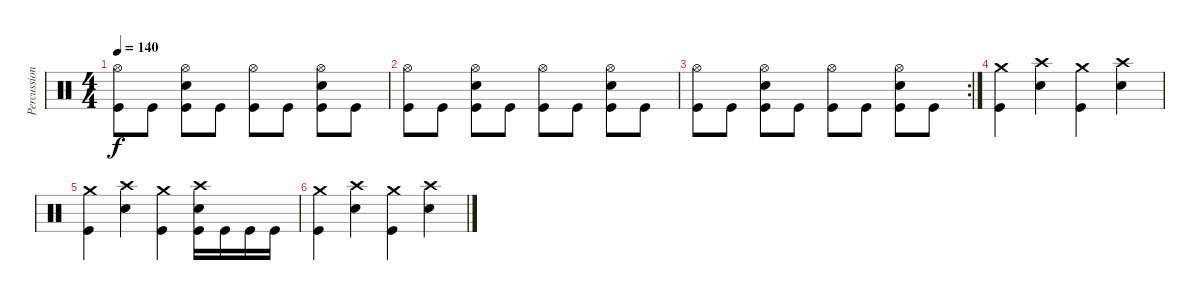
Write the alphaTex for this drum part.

\track ("Percussion" "Percussion") {instrument percussion}
\staff {score}
\articulation defaults
\ts (4 4)
\tempo 140
\clef neutral
\ks c
("Hi-Hat (open)" "Kick (hit)").8{dy f} "Kick (hit)".8 ("Hi-Hat (open)" "Snare (hit) 2" "Kick (hit)").8 "Kick (hit)".8 ("Hi-Hat (open)" "Kick (hit)").8 "Kick (hit)".8 ("Hi-Hat (open)" "Snare (hit) 2" "Kick (hit)").8 "Kick (hit)".8 |
("Hi-Hat (open)" "Kick (hit)").8 "Kick (hit)".8 ("Hi-Hat (open)" "Snare (hit) 2" "Kick (hit)").8 "Kick (hit)".8 ("Hi-Hat (open)" "Kick (hit)").8 "Kick (hit)".8 ("Hi-Hat (open)" "Snare (hit) 2" "Kick (hit)").8 "Kick (hit)".8 |
\rc 2
("Hi-Hat (open)" "Kick (hit)").8 "Kick (hit)".8 ("Hi-Hat (open)" "Snare (hit) 2" "Kick (hit)").8 "Kick (hit)".8 ("Hi-Hat (open)" "Kick (hit)").8 "Kick (hit)".8 ("Hi-Hat (open)" "Snare (hit) 2" "Kick (hit)").8 "Kick (hit)".8 |
("Crash medium (hit)" "Kick (hit)").4 ("Crash high (hit)" "Snare (hit) 2").4 ("Crash medium (hit)" "Kick (hit)").4 ("Crash high (hit)" "Snare (hit) 2").4 |
("Crash medium (hit)" "Kick (hit)").4 ("Crash high (hit)" "Snare (hit) 2").4 ("Crash medium (hit)" "Kick (hit)").4 ("Crash high (hit)" "Snare (hit) 2" "Kick (hit)").16 "Kick (hit)".16 "Kick (hit)".16 "Kick (hit)".16 |
("Crash medium (hit)" "Kick (hit)").4 ("Crash high (hit)" "Snare (hit) 2").4 ("Crash medium (hit)" "Kick (hit)").4 ("Crash high (hit)" "Snare (hit) 2").4
